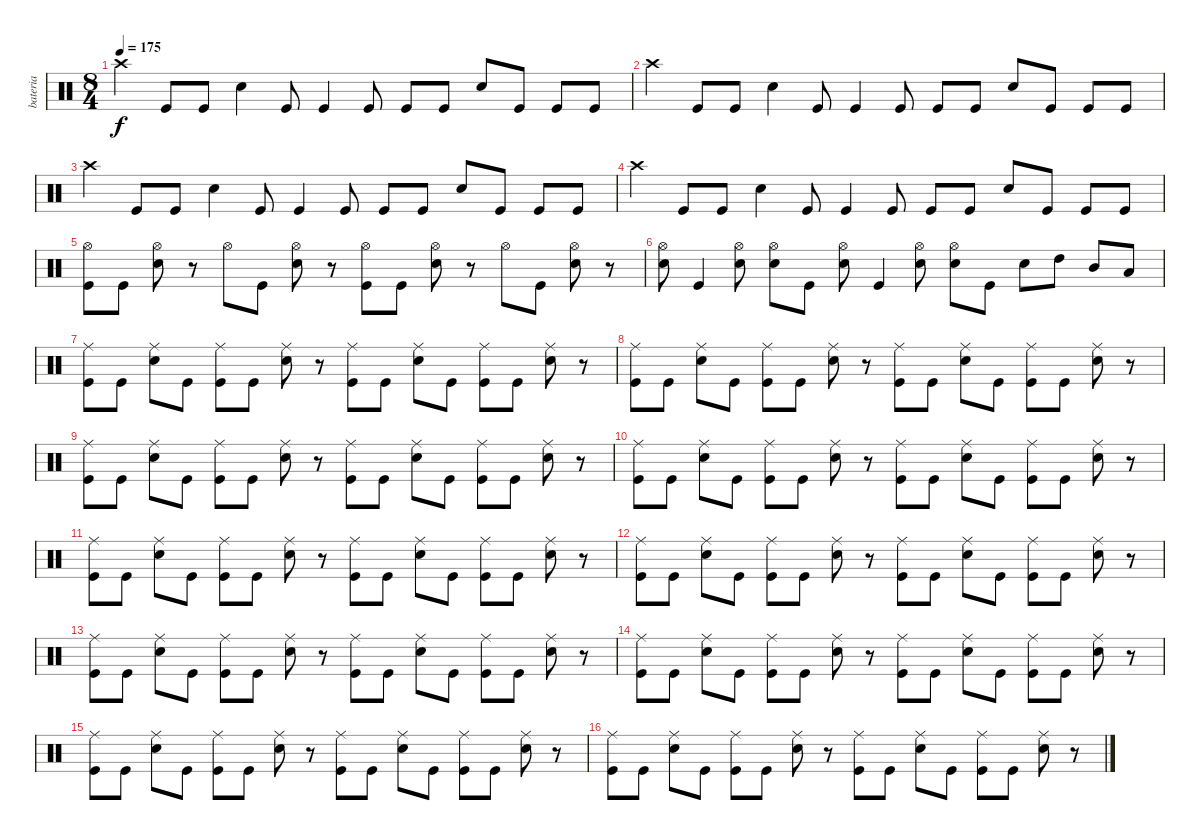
\track ("bateria" "bateria") {instrument percussion}
\staff {score}
\articulation defaults
\ts (8 4)
\tempo 175
\clef neutral
\ks c "Crash high (hit)".4{dy f} "Kick (hit)".8 "Kick (hit)".8 "Snare (hit) 2".4 "Kick (hit)".8 "Kick (hit)".4 "Kick (hit)".8 "Kick (hit)".8 "Kick (hit)".8 "Snare (hit) 2".8 "Kick (hit)".8 "Kick (hit)".8 "Kick (hit)".8
|
"Crash high (hit)".4 "Kick (hit)".8 "Kick (hit)".8 "Snare (hit) 2".4 "Kick (hit)".8 "Kick (hit)".4 "Kick (hit)".8 "Kick (hit)".8 "Kick (hit)".8 "Snare (hit) 2".8 "Kick (hit)".8 "Kick (hit)".8 "Kick (hit)".8 |
"Crash high (hit)".4 "Kick (hit)".8 "Kick (hit)".8 "Snare (hit) 2".4 "Kick (hit)".8 "Kick (hit)".4 "Kick (hit)".8 "Kick (hit)".8 "Kick (hit)".8 "Snare (hit) 2".8 "Kick (hit)".8 "Kick (hit)".8 "Kick (hit)".8 |
"Crash high (hit)".4 "Kick (hit)".8 "Kick (hit)".8 "Snare (hit) 2".4 "Kick (hit)".8 "Kick (hit)".4 "Kick (hit)".8 "Kick (hit)".8 "Kick (hit)".8 "Snare (hit) 2".8 "Kick (hit)".8 "Kick (hit)".8 "Kick (hit)".8 |
("Hi-Hat (open)" "Kick (hit)").8 "Kick (hit)".8 ("Hi-Hat (open)" "Snare (hit) 2").8 r.8 "Hi-Hat (open)".8 "Kick (hit)".8 ("Hi-Hat (open)" "Snare (hit) 2").8 r.8 ("Hi-Hat (open)" "Kick (hit)").8 "Kick (hit)".8 ("Hi-Hat (open)" "Snare (hit) 2").8 r.8 "Hi-Hat (open)".8 "Kick (hit)".8 ("Hi-Hat (open)" "Snare (hit) 2").8 r.8 |
("Snare (hit) 2" "Hi-Hat (open)").8 "Kick (hit)".4 ("Snare (hit) 2" "Hi-Hat (open)").8 ("Snare (hit) 2" "Hi-Hat (open)").8 "Kick (hit)".8 ("Snare (hit) 2" "Hi-Hat (open)").8 "Kick (hit)".4 ("Snare (hit) 2" "Hi-Hat (open)").8 ("Snare (hit) 2" "Hi-Hat (open)").8 "Kick (hit)".8 "Snare (hit) 2".8 "High Tom (hit)".8 "Mid Tom (hit)".8 "Low Tom (hit)".8 |
("Ride (middle)" "Kick (hit)").8 "Kick (hit)".8 ("Ride (middle)" "Snare (hit) 2").8 "Kick (hit)".8 ("Ride (middle)" "Kick (hit)").8 "Kick (hit)".8 ("Ride (middle)" "Snare (hit) 2").8 r.8 ("Ride (middle)" "Kick (hit)").8 "Kick (hit)".8 ("Ride (middle)" "Snare (hit) 2").8 "Kick (hit)".8 ("Ride (middle)" "Kick (hit)").8 "Kick (hit)".8 ("Ride (middle)" "Snare (hit) 2").8 r.8 |
("Ride (middle)" "Kick (hit)").8 "Kick (hit)".8 ("Ride (middle)" "Snare (hit) 2").8 "Kick (hit)".8 ("Ride (middle)" "Kick (hit)").8 "Kick (hit)".8 ("Ride (middle)" "Snare (hit) 2").8 r.8 ("Ride (middle)" "Kick (hit)").8 "Kick (hit)".8 ("Ride (middle)" "Snare (hit) 2").8 "Kick (hit)".8 ("Ride (middle)" "Kick (hit)").8 "Kick (hit)".8 ("Ride (middle)" "Snare (hit) 2").8 r.8 |
("Ride (middle)" "Kick (hit)").8 "Kick (hit)".8 ("Ride (middle)" "Snare (hit) 2").8 "Kick (hit)".8 ("Ride (middle)" "Kick (hit)").8 "Kick (hit)".8 ("Ride (middle)" "Snare (hit) 2").8 r.8 ("Ride (middle)" "Kick (hit)").8 "Kick (hit)".8 ("Ride (middle)" "Snare (hit) 2").8 "Kick (hit)".8 ("Ride (middle)" "Kick (hit)").8 "Kick (hit)".8 ("Ride (middle)" "Snare (hit) 2").8 r.8 |
("Ride (middle)" "Kick (hit)").8 "Kick (hit)".8 ("Ride (middle)" "Snare (hit) 2").8 "Kick (hit)".8 ("Ride (middle)" "Kick (hit)").8 "Kick (hit)".8 ("Ride (middle)" "Snare (hit) 2").8 r.8 ("Ride (middle)" "Kick (hit)").8 "Kick (hit)".8 ("Ride (middle)" "Snare (hit) 2").8 "Kick (hit)".8 ("Ride (middle)" "Kick (hit)").8 "Kick (hit)".8 ("Ride (middle)" "Snare (hit) 2").8 r.8 |
("Ride (middle)" "Kick (hit)").8 "Kick (hit)".8 ("Ride (middle)" "Snare (hit) 2").8 "Kick (hit)".8 ("Ride (middle)" "Kick (hit)").8 "Kick (hit)".8 ("Ride (middle)" "Snare (hit) 2").8 r.8 ("Ride (middle)" "Kick (hit)").8 "Kick (hit)".8 ("Ride (middle)" "Snare (hit) 2").8 "Kick (hit)".8 ("Ride (middle)" "Kick (hit)").8 "Kick (hit)".8 ("Ride (middle)" "Snare (hit) 2").8 r.8 |
("Ride (middle)" "Kick (hit)").8 "Kick (hit)".8 ("Ride (middle)" "Snare (hit) 2").8 "Kick (hit)".8 ("Ride (middle)" "Kick (hit)").8 "Kick (hit)".8 ("Ride (middle)" "Snare (hit) 2").8 r.8 ("Ride (middle)" "Kick (hit)").8 "Kick (hit)".8 ("Ride (middle)" "Snare (hit) 2").8 "Kick (hit)".8 ("Ride (middle)" "Kick (hit)").8 "Kick (hit)".8 ("Ride (middle)" "Snare (hit) 2").8 r.8 |
("Ride (middle)" "Kick (hit)").8 "Kick (hit)".8 ("Ride (middle)" "Snare (hit) 2").8 "Kick (hit)".8 ("Ride (middle)" "Kick (hit)").8 "Kick (hit)".8 ("Ride (middle)" "Snare (hit) 2").8 r.8 ("Ride (middle)" "Kick (hit)").8 "Kick (hit)".8 ("Ride (middle)" "Snare (hit) 2").8 "Kick (hit)".8 ("Ride (middle)" "Kick (hit)").8 "Kick (hit)".8 ("Ride (middle)" "Snare (hit) 2").8 r.8 |
("Ride (middle)" "Kick (hit)").8 "Kick (hit)".8 ("Ride (middle)" "Snare (hit) 2").8 "Kick (hit)".8 ("Ride (middle)" "Kick (hit)").8 "Kick (hit)".8 ("Ride (middle)" "Snare (hit) 2").8 r.8 ("Ride (middle)" "Kick (hit)").8 "Kick (hit)".8 ("Ride (middle)" "Snare (hit) 2").8 "Kick (hit)".8 ("Ride (middle)" "Kick (hit)").8 "Kick (hit)".8 ("Ride (middle)" "Snare (hit) 2").8 r.8 |
("Ride (middle)" "Kick (hit)").8 "Kick (hit)".8 ("Ride (middle)" "Snare (hit) 2").8 "Kick (hit)".8 ("Ride (middle)" "Kick (hit)").8 "Kick (hit)".8 ("Ride (middle)" "Snare (hit) 2").8 r.8 ("Ride (middle)" "Kick (hit)").8 "Kick (hit)".8 ("Ride (middle)" "Snare (hit) 2").8 "Kick (hit)".8 ("Ride (middle)" "Kick (hit)").8 "Kick (hit)".8 ("Ride (middle)" "Snare (hit) 2").8 r.8 |
("Ride (middle)" "Kick (hit)").8 "Kick (hit)".8 ("Ride (middle)" "Snare (hit) 2").8 "Kick (hit)".8 ("Ride (middle)" "Kick (hit)").8 "Kick (hit)".8 ("Ride (middle)" "Snare (hit) 2").8 r.8 ("Ride (middle)" "Kick (hit)").8 "Kick (hit)".8 ("Ride (middle)" "Snare (hit) 2").8 "Kick (hit)".8 ("Ride (middle)" "Kick (hit)").8 "Kick (hit)".8 ("Ride (middle)" "Snare (hit) 2").8 r.8
